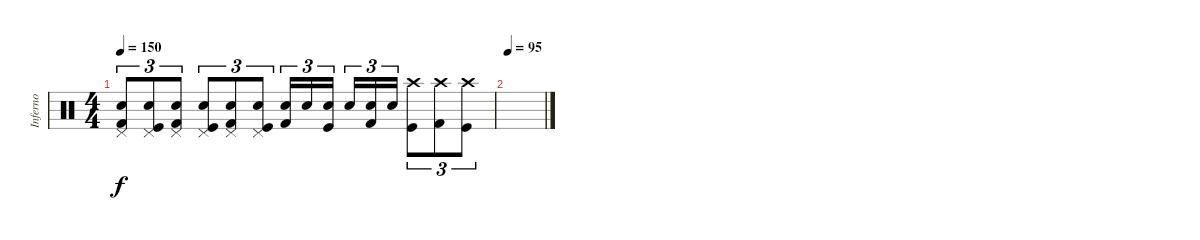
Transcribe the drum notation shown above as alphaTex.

\track ("Inferno" "Inferno") {instrument percussion}
\staff {score}
\articulation defaults
\ts (4 4)
\tempo 150
\clef neutral
\ks c
("Pedal Hi-Hat (hit)" "Electric Snare (hit)" "Kick (hit) 2").8{tu (3 2) dy f} ("Pedal Hi-Hat (hit)" "Electric Snare (hit)" "Kick (hit)").8{tu (3 2)} ("Pedal Hi-Hat (hit)" "Electric Snare (hit)" "Kick (hit) 2").8{tu (3 2)} ("Pedal Hi-Hat (hit)" "Electric Snare (hit)" "Kick (hit)").8{tu (3 2)} ("Pedal Hi-Hat (hit)" "Electric Snare (hit)" "Kick (hit) 2").8{tu (3 2)} ("Pedal Hi-Hat (hit)" "Electric Snare (hit)" "Kick (hit)").8{tu (3 2)} ("Electric Snare (hit)" "Kick (hit) 2").16{tu (3 2)} "Electric Snare (hit)".16{tu (3 2)} ("Electric Snare (hit)" "Kick (hit)").16{tu (3 2)} "Electric Snare (hit)".16{tu (3 2)} ("Electric Snare (hit)" "Kick (hit) 2").16{tu (3 2)} "Electric Snare (hit)".16{tu (3 2)} ("Crash high (hit)" "Kick (hit)").8{tu (3 2)} ("Crash high (hit)" "Kick (hit) 2").8{tu (3 2)} ("Crash high (hit)" "Kick (hit)").8{tu (3 2)} |
\tempo 95
